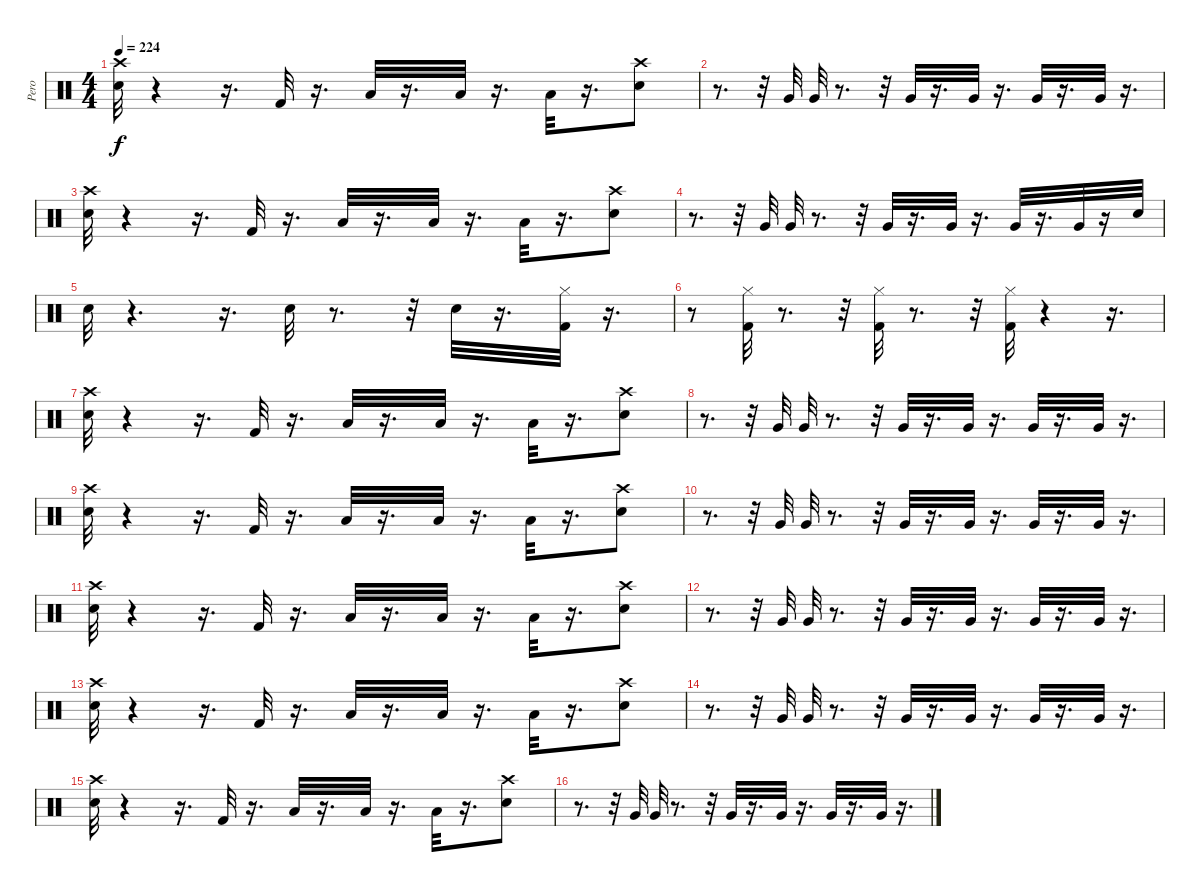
\track ("Pero" "Pero") {instrument percussion}
\staff {score}
\articulation defaults
\ts (4 4)
\tempo 224
\clef neutral
\ks c
("Crash high (hit)" "Snare (hit) 2").32{dy f} r.4 r.16{d} "Kick (hit) 2".32 r.16{d} "Low Tom (hit)".32 r.16{d} "Low Tom (hit)".32 r.16{d} "Low Tom (hit)".32 r.16{d} ("Crash high (hit)" "Snare (hit) 2").8 |
r.8{d} r.32 "Very Low Tom (hit)".32 "Very Low Tom (hit)".32 r.8{d} r.32 "Very Low Tom (hit)".32 r.16{d} "Very Low Tom (hit)".32 r.16{d} "Very Low Tom (hit)".32 r.16{d} "Very Low Tom (hit)".32 r.16{d} |
("Crash high (hit)" "Snare (hit) 2").32 r.4 r.16{d} "Kick (hit) 2".32 r.16{d} "Low Tom (hit)".32 r.16{d} "Low Tom (hit)".32 r.16{d} "Low Tom (hit)".32 r.16{d} ("Crash high (hit)" "Snare (hit) 2").8 |
r.8{d} r.32 "Very Low Tom (hit)".32 "Very Low Tom (hit)".32 r.8{d} r.32 "Very Low Tom (hit)".32 r.16{d} "Very Low Tom (hit)".32 r.16{d} "Very Low Tom (hit)".32 r.16{d} "Very Low Tom (hit)".32 r.16 "Snare (hit) 2".32 |
"Snare (hit) 2".32 r.4{d} r.16{d} "Snare (hit) 2".32 r.8{d} r.32 "Snare (hit) 2".32 r.16{d} ("Hi-Hat (closed)" "Kick (hit) 2").32 r.16{d} |
r.8 ("Hi-Hat (closed)" "Kick (hit) 2").32 r.8{d} r.32 ("Hi-Hat (closed)" "Kick (hit) 2").32 r.8{d} r.32 ("Hi-Hat (closed)" "Kick (hit) 2").32 r.4 r.16{d} |
("Crash high (hit)" "Snare (hit) 2").32 r.4 r.16{d} "Kick (hit) 2".32 r.16{d} "Low Tom (hit)".32 r.16{d} "Low Tom (hit)".32 r.16{d} "Low Tom (hit)".32 r.16{d} ("Crash high (hit)" "Snare (hit) 2").8 |
r.8{d} r.32 "Very Low Tom (hit)".32 "Very Low Tom (hit)".32 r.8{d} r.32 "Very Low Tom (hit)".32 r.16{d} "Very Low Tom (hit)".32 r.16{d} "Very Low Tom (hit)".32 r.16{d} "Very Low Tom (hit)".32 r.16{d} |
("Crash high (hit)" "Snare (hit) 2").32 r.4 r.16{d} "Kick (hit) 2".32 r.16{d} "Low Tom (hit)".32 r.16{d} "Low Tom (hit)".32 r.16{d} "Low Tom (hit)".32 r.16{d} ("Crash high (hit)" "Snare (hit) 2").8 |
r.8{d} r.32 "Very Low Tom (hit)".32 "Very Low Tom (hit)".32 r.8{d} r.32 "Very Low Tom (hit)".32 r.16{d} "Very Low Tom (hit)".32 r.16{d} "Very Low Tom (hit)".32 r.16{d} "Very Low Tom (hit)".32 r.16{d} |
("Crash high (hit)" "Snare (hit) 2").32 r.4 r.16{d} "Kick (hit) 2".32 r.16{d} "Low Tom (hit)".32 r.16{d} "Low Tom (hit)".32 r.16{d} "Low Tom (hit)".32 r.16{d} ("Crash high (hit)" "Snare (hit) 2").8 |
r.8{d} r.32 "Very Low Tom (hit)".32 "Very Low Tom (hit)".32 r.8{d} r.32 "Very Low Tom (hit)".32 r.16{d} "Very Low Tom (hit)".32 r.16{d} "Very Low Tom (hit)".32 r.16{d} "Very Low Tom (hit)".32 r.16{d} |
("Crash high (hit)" "Snare (hit) 2").32 r.4 r.16{d} "Kick (hit) 2".32 r.16{d} "Low Tom (hit)".32 r.16{d} "Low Tom (hit)".32 r.16{d} "Low Tom (hit)".32 r.16{d} ("Crash high (hit)" "Snare (hit) 2").8 |
r.8{d} r.32 "Very Low Tom (hit)".32 "Very Low Tom (hit)".32 r.8{d} r.32 "Very Low Tom (hit)".32 r.16{d} "Very Low Tom (hit)".32 r.16{d} "Very Low Tom (hit)".32 r.16{d} "Very Low Tom (hit)".32 r.16{d} |
("Crash high (hit)" "Snare (hit) 2").32 r.4 r.16{d} "Kick (hit) 2".32 r.16{d} "Low Tom (hit)".32 r.16{d} "Low Tom (hit)".32 r.16{d} "Low Tom (hit)".32 r.16{d} ("Crash high (hit)" "Snare (hit) 2").8 |
r.8{d} r.32 "Very Low Tom (hit)".32 "Very Low Tom (hit)".32 r.8{d} r.32 "Very Low Tom (hit)".32 r.16{d} "Very Low Tom (hit)".32 r.16{d} "Very Low Tom (hit)".32 r.16{d} "Very Low Tom (hit)".32 r.16{d}
